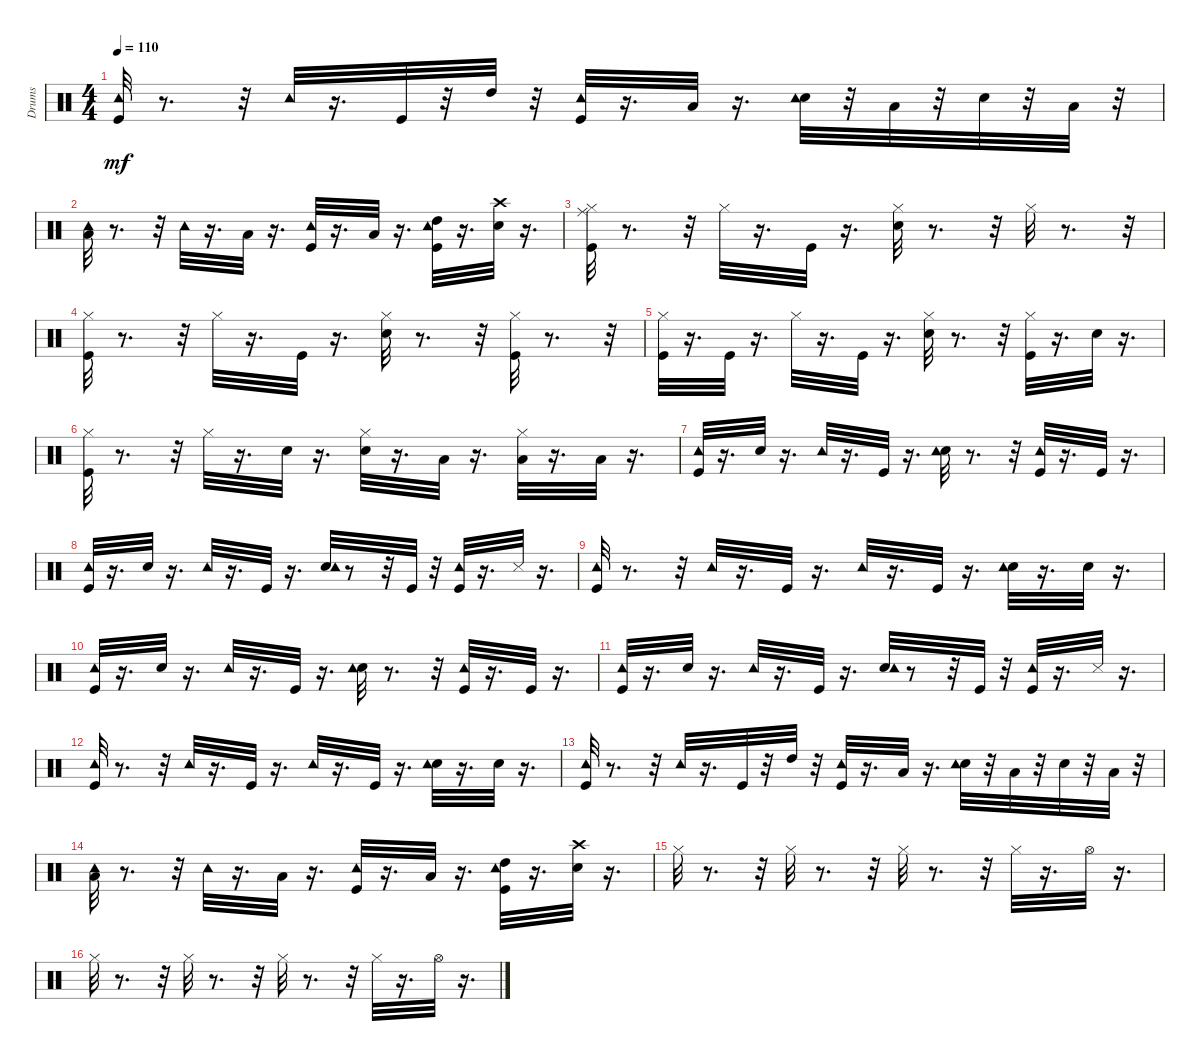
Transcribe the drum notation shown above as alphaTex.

\track ("Drums" "Drums") {instrument percussion}
\staff {score}
\articulation defaults
\ts (4 4)
\tempo 110
\clef neutral
\ks c
("Kick (hit)" "Tambourine (hit)").32{dy mf} r.8{d} r.32 "Tambourine (hit)".32 r.16{d} "Kick (hit)".32 r.32 "High Tom (hit)".32 r.32 ("Kick (hit)" "Tambourine (hit)").32 r.16{d} "Low Tom (hit)".32 r.16{d} ("Snare (hit) 2" "Tambourine (hit)").32 r.32 "Low Floor Tom (hit)".32 r.32 "Snare (hit) 2".32 r.32 "Low Floor Tom (hit)".32 r.32 |
("Low Floor Tom (hit)" "Tambourine (hit)").32 r.8{d} r.32 "Tambourine (hit)".32 r.16{d} "Low Floor Tom (hit)".32 r.16{d} ("Kick (hit)" "Tambourine (hit)").32 r.16{d} "Low Floor Tom (hit)".32 r.16{d} ("Kick (hit)" "High Tom (hit)" "Tambourine (hit)").32 r.16{d} ("Snare (hit) 2" "Crash high (hit)").32 r.16{d} |
("Kick (hit)" "Hi-Hat (closed)" "Ride (middle)").32 r.8{d} r.32 "Hi-Hat (closed)".32 r.16{d} "Kick (hit)".32 r.16{d} ("Snare (hit) 2" "Hi-Hat (closed)").32 r.8{d} r.32 "Hi-Hat (closed)".32 r.8{d} r.32 |
("Kick (hit)" "Hi-Hat (closed)").32 r.8{d} r.32 "Hi-Hat (closed)".32 r.16{d} "Kick (hit)".32 r.16{d} ("Snare (hit) 2" "Hi-Hat (closed)").32 r.8{d} r.32 ("Kick (hit)" "Hi-Hat (closed)").32 r.8{d} r.32 |
("Kick (hit)" "Hi-Hat (closed)").32 r.16{d} "Kick (hit)".32 r.16{d} "Hi-Hat (closed)".32 r.16{d} "Kick (hit)".32 r.16{d} ("Snare (hit) 2" "Hi-Hat (closed)").32 r.8{d} r.32 ("Kick (hit)" "Hi-Hat (closed)").32 r.16{d} "Snare (hit) 2".32 r.16{d} |
("Kick (hit)" "Hi-Hat (closed)").32 r.8{d} r.32 "Hi-Hat (closed)".32 r.16{d} "Snare (hit) 2".32 r.16{d} ("Snare (hit) 2" "Hi-Hat (closed)").32 r.16{d} "Low Floor Tom (hit)".32 r.16{d} ("Low Tom (hit)" "Hi-Hat (closed)").32 r.16{d} "Low Floor Tom (hit)".32 r.16{d} |
("Kick (hit)" "Tambourine (hit)").32 r.16{d} "Snare (hit) 2".32 r.16{d} "Tambourine (hit)".32 r.16{d} "Kick (hit)".32 r.16{d} ("Snare (hit) 2" "Tambourine (hit)").32 r.8{d} r.32 ("Kick (hit)" "Tambourine (hit)").32 r.16{d} "Kick (hit)".32 r.16{d} |
("Kick (hit)" "Tambourine (hit)").32 r.16{d} "Snare (hit) 2".32 r.16{d} "Tambourine (hit)".32 r.16{d} "Kick (hit)".32 r.16{d} ("Snare (hit) 2" "Tambourine (hit)").32 r.8 r.32 "Kick (hit)".32 r.32 ("Kick (hit)" "Tambourine (hit)").32 r.16{d} "Snare (side stick) 3".32 r.16{d} |
("Kick (hit)" "Tambourine (hit)").32 r.8{d} r.32 "Tambourine (hit)".32 r.16{d} "Kick (hit)".32 r.16{d} "Tambourine (hit)".32 r.16{d} "Kick (hit)".32 r.16{d} ("Snare (hit) 2" "Tambourine (hit)").32 r.16{d} "Snare (hit) 2".32 r.16{d} |
("Kick (hit)" "Tambourine (hit)").32 r.16{d} "Snare (hit) 2".32 r.16{d} "Tambourine (hit)".32 r.16{d} "Kick (hit)".32 r.16{d} ("Snare (hit) 2" "Tambourine (hit)").32 r.8{d} r.32 ("Kick (hit)" "Tambourine (hit)").32 r.16{d} "Kick (hit)".32 r.16{d} |
("Kick (hit)" "Tambourine (hit)").32 r.16{d} "Snare (hit) 2".32 r.16{d} "Tambourine (hit)".32 r.16{d} "Kick (hit)".32 r.16{d} ("Snare (hit) 2" "Tambourine (hit)").32 r.8 r.32 "Kick (hit)".32 r.32 ("Kick (hit)" "Tambourine (hit)").32 r.16{d} "Snare (side stick) 3".32 r.16{d} |
("Kick (hit)" "Tambourine (hit)").32 r.8{d} r.32 "Tambourine (hit)".32 r.16{d} "Kick (hit)".32 r.16{d} "Tambourine (hit)".32 r.16{d} "Kick (hit)".32 r.16{d} ("Snare (hit) 2" "Tambourine (hit)").32 r.16{d} "Snare (hit) 2".32 r.16{d} |
("Kick (hit)" "Tambourine (hit)").32 r.8{d} r.32 "Tambourine (hit)".32 r.16{d} "Kick (hit)".32 r.32 "High Tom (hit)".32 r.32 ("Kick (hit)" "Tambourine (hit)").32 r.16{d} "Low Tom (hit)".32 r.16{d} ("Snare (hit) 2" "Tambourine (hit)").32 r.32 "Low Floor Tom (hit)".32 r.32 "Snare (hit) 2".32 r.32 "Low Floor Tom (hit)".32 r.32 |
("Low Floor Tom (hit)" "Tambourine (hit)").32 r.8{d} r.32 "Tambourine (hit)".32 r.16{d} "Low Floor Tom (hit)".32 r.16{d} ("Kick (hit)" "Tambourine (hit)").32 r.16{d} "Low Floor Tom (hit)".32 r.16{d} ("Kick (hit)" "High Tom (hit)" "Tambourine (hit)").32 r.16{d} ("Snare (hit) 2" "Crash high (hit)").32 r.16{d} |
"Hi-Hat (closed)".32 r.8{d} r.32 "Hi-Hat (closed)".32 r.8{d} r.32 "Hi-Hat (closed)".32 r.8{d} r.32 "Hi-Hat (closed)".32 r.16{d} "Hi-Hat (open)".32 r.16{d} |
"Hi-Hat (closed)".32 r.8{d} r.32 "Hi-Hat (closed)".32 r.8{d} r.32 "Hi-Hat (closed)".32 r.8{d} r.32 "Hi-Hat (closed)".32 r.16{d} "Hi-Hat (open)".32 r.16{d}
